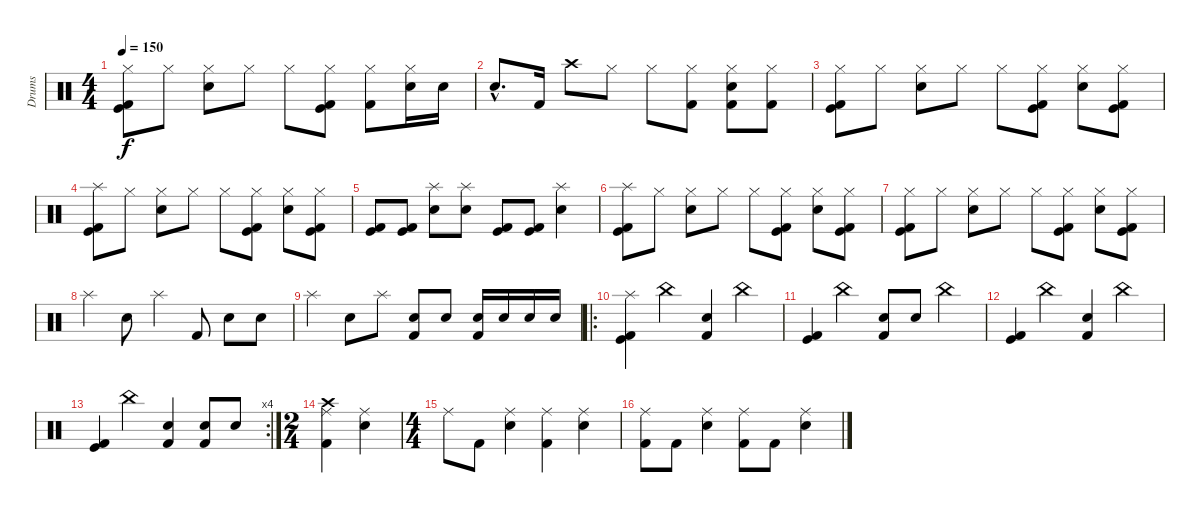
\track ("Drums" "Drums") {instrument percussion}
\staff {score}
\articulation defaults
\ts (4 4)
\tempo 150
\clef neutral
\ks c
("Hi-Hat (closed)" "Kick (hit)" "Kick (hit) 2").8{dy f} "Hi-Hat (closed)".8 ("Hi-Hat (closed)" "Snare (hit) 2").8 "Hi-Hat (closed)".8 "Hi-Hat (closed)".8 ("Hi-Hat (closed)" "Kick (hit)" "Kick (hit) 2").8 ("Hi-Hat (closed)" "Kick (hit) 2").8 ("Hi-Hat (closed)" "Snare (hit) 2").16 "Snare (hit) 2".16 |
"Snare (hit) 2"{hac}.8{d} "Kick (hit) 2".16 "Crash high (hit)".8 "Hi-Hat (closed)".8 "Hi-Hat (closed)".8 ("Hi-Hat (closed)" "Kick (hit) 2").8 ("Hi-Hat (closed)" "Snare (hit) 2" "Kick (hit) 2").8 ("Hi-Hat (closed)" "Kick (hit) 2").8 |
("Hi-Hat (closed)" "Kick (hit)" "Kick (hit) 2").8 "Hi-Hat (closed)".8 ("Hi-Hat (closed)" "Snare (hit) 2").8 "Hi-Hat (closed)".8 "Hi-Hat (closed)".8 ("Hi-Hat (closed)" "Kick (hit)" "Kick (hit) 2").8 ("Hi-Hat (closed)" "Snare (hit) 2").8 ("Hi-Hat (closed)" "Kick (hit)" "Kick (hit) 2").8 |
("Splash (hit)" "Kick (hit)" "Kick (hit) 2").8 "Hi-Hat (closed)".8 ("Hi-Hat (closed)" "Snare (hit) 2").8 "Hi-Hat (closed)".8 "Hi-Hat (closed)".8 ("Hi-Hat (closed)" "Kick (hit)" "Kick (hit) 2").8 ("Hi-Hat (closed)" "Snare (hit) 2").8 ("Hi-Hat (closed)" "Kick (hit)" "Kick (hit) 2").8 |
("Kick (hit)" "Kick (hit) 2").8 ("Kick (hit)" "Kick (hit) 2").8 ("Splash (hit)" "Snare (hit) 2").8 ("Splash (hit)" "Snare (hit) 2").8 ("Kick (hit)" "Kick (hit) 2").8 ("Kick (hit)" "Kick (hit) 2").8 ("Splash (hit)" "Snare (hit) 2").4 |
("Splash (hit)" "Kick (hit)" "Kick (hit) 2").8 "Hi-Hat (closed)".8 ("Hi-Hat (closed)" "Snare (hit) 2").8 "Hi-Hat (closed)".8 "Hi-Hat (closed)".8 ("Hi-Hat (closed)" "Kick (hit)" "Kick (hit) 2").8 ("Hi-Hat (closed)" "Snare (hit) 2").8 ("Hi-Hat (closed)" "Kick (hit)" "Kick (hit) 2").8 |
("Hi-Hat (closed)" "Kick (hit)" "Kick (hit) 2").8 "Hi-Hat (closed)".8 ("Hi-Hat (closed)" "Snare (hit) 2").8 "Hi-Hat (closed)".8 "Hi-Hat (closed)".8 ("Hi-Hat (closed)" "Kick (hit)" "Kick (hit) 2").8 ("Hi-Hat (closed)" "Snare (hit) 2").8 ("Hi-Hat (closed)" "Kick (hit)" "Kick (hit) 2").8 |
"Splash (hit)".4 "Snare (hit) 2".8 "Splash (hit)".4 "Kick (hit) 2".8 "Snare (hit) 2".8 "Snare (hit) 2".8 |
"Splash (hit)".4 "Snare (hit) 2".8 "Splash (hit)".8 ("Snare (hit) 2" "Kick (hit) 2").8 "Snare (hit) 2".8 ("Snare (hit) 2" "Kick (hit) 2").16 "Snare (hit) 2".16 "Snare (hit) 2".16 "Snare (hit) 2".16 |
\ro
("Splash (hit)" "Kick (hit)" "Kick (hit) 2").4 "China (hit)".4 ("Snare (hit) 2" "Kick (hit) 2").4 "China (hit)".4 |
("Kick (hit)" "Kick (hit) 2").4 "China (hit)".4 ("Snare (hit) 2" "Kick (hit) 2").8 "Snare (hit) 2".8 "China (hit)".4 |
("Kick (hit)" "Kick (hit) 2").4 "China (hit)".4 ("Snare (hit) 2" "Kick (hit) 2").4 "China (hit)".4 |
\rc 4
("Kick (hit)" "Kick (hit) 2").4 "China (hit)".4 ("Snare (hit) 2" "Kick (hit) 2").4 ("Snare (hit) 2" "Kick (hit) 2").8 "Snare (hit) 2".8 |
\ts (2 4)
("Crash high (hit)" "Ride (middle)" "Kick (hit) 2").4 ("Ride (middle)" "Snare (hit) 2").4 |
\ts (4 4)
"Ride (middle)".8 "Kick (hit) 2".8 ("Ride (middle)" "Snare (hit) 2").4 ("Ride (middle)" "Kick (hit) 2").4 ("Ride (middle)" "Snare (hit) 2").4 |
("Ride (middle)" "Kick (hit) 2").8 "Kick (hit) 2".8 ("Ride (middle)" "Snare (hit) 2").4 ("Ride (middle)" "Kick (hit) 2").8 "Kick (hit) 2".8 ("Ride (middle)" "Snare (hit) 2").4
